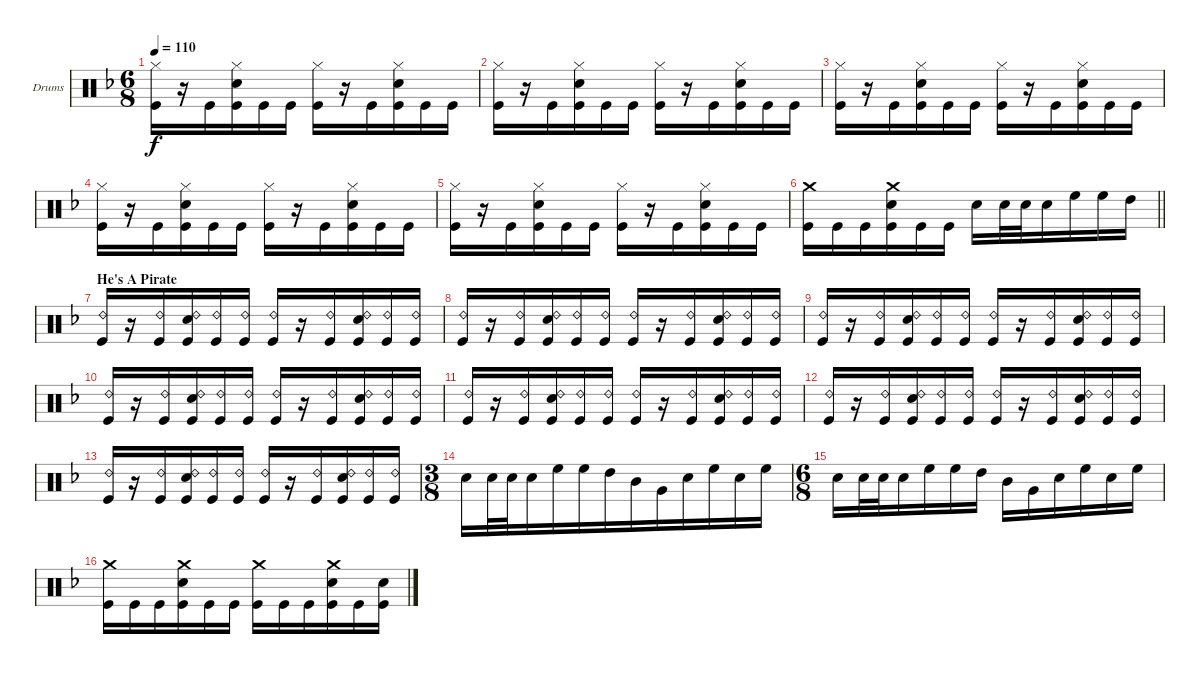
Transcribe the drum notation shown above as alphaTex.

\bracketExtendMode groupsimilarinstruments
\firstSystemTrackNameOrientation horizontal
\otherSystemsTrackNameOrientation horizontal
\track ("Drumkit" "Drums") {instrument percussion}
\staff {score}
\articulation defaults
\ts (6 8)
\tempo 110
\clef neutral
\ks f
("Kick (hit)" "Hi-Hat (closed)").16{dy f} r.16 "Kick (hit)".16 ("Kick (hit)" "Snare (hit) 2" "Hi-Hat (closed)").16 "Kick (hit)".16 "Kick (hit)".16 ("Kick (hit)" "Hi-Hat (closed)").16 r.16 "Kick (hit)".16 ("Kick (hit)" "Snare (hit) 2" "Hi-Hat (closed)").16 "Kick (hit)".16 "Kick (hit)".16 |
("Kick (hit)" "Hi-Hat (closed)").16 r.16 "Kick (hit)".16 ("Kick (hit)" "Snare (hit) 2" "Hi-Hat (closed)").16 "Kick (hit)".16 "Kick (hit)".16 ("Kick (hit)" "Hi-Hat (closed)").16 r.16 "Kick (hit)".16 ("Kick (hit)" "Snare (hit) 2" "Hi-Hat (closed)").16 "Kick (hit)".16 "Kick (hit)".16 |
("Kick (hit)" "Hi-Hat (closed)").16 r.16 "Kick (hit)".16 ("Kick (hit)" "Snare (hit) 2" "Hi-Hat (closed)").16 "Kick (hit)".16 "Kick (hit)".16 ("Kick (hit)" "Hi-Hat (closed)").16 r.16 "Kick (hit)".16 ("Kick (hit)" "Snare (hit) 2" "Hi-Hat (closed)").16 "Kick (hit)".16 "Kick (hit)".16 |
("Kick (hit)" "Hi-Hat (closed)").16 r.16 "Kick (hit)".16 ("Kick (hit)" "Snare (hit) 2" "Hi-Hat (closed)").16 "Kick (hit)".16 "Kick (hit)".16 ("Kick (hit)" "Hi-Hat (closed)").16 r.16 "Kick (hit)".16 ("Kick (hit)" "Snare (hit) 2" "Hi-Hat (closed)").16 "Kick (hit)".16 "Kick (hit)".16 |
("Kick (hit)" "Hi-Hat (closed)").16 r.16 "Kick (hit)".16 ("Kick (hit)" "Snare (hit) 2" "Hi-Hat (closed)").16 "Kick (hit)".16 "Kick (hit)".16 ("Kick (hit)" "Hi-Hat (closed)").16 r.16 "Kick (hit)".16 ("Kick (hit)" "Snare (hit) 2" "Hi-Hat (closed)").16 "Kick (hit)".16 "Kick (hit)".16 |
\barLineRight lightlight
("Kick (hit)" "Crash medium (hit)").16 "Kick (hit)".16 "Kick (hit)".16 ("Kick (hit)" "Snare (hit) 2" "Crash medium (hit)").16 "Kick (hit)".16 "Kick (hit)".16 "Snare (hit) 2".16 "Snare (hit) 2".32 "Snare (hit) 2".32 "Snare (hit) 2".16 "High Floor Tom (hit)".16 "High Floor Tom (hit)".16 "High Tom (hit)".16 |
\section ("" "He's A Pirate")
("Kick (hit)" "Ride (bell) 2").16 r.16 ("Kick (hit)" "Ride (bell) 2").16 ("Kick (hit)" "Snare (hit) 2" "Ride (bell) 2").16 ("Kick (hit)" "Ride (bell) 2").16 ("Kick (hit)" "Ride (bell) 2").16 ("Kick (hit)" "Ride (bell) 2").16 r.16 ("Kick (hit)" "Ride (bell) 2").16 ("Kick (hit)" "Snare (hit) 2" "Ride (bell) 2").16 ("Kick (hit)" "Ride (bell) 2").16 ("Kick (hit)" "Ride (bell) 2").16 |
("Kick (hit)" "Ride (bell) 2").16 r.16 ("Kick (hit)" "Ride (bell) 2").16 ("Kick (hit)" "Snare (hit) 2" "Ride (bell) 2").16 ("Kick (hit)" "Ride (bell) 2").16 ("Kick (hit)" "Ride (bell) 2").16 ("Kick (hit)" "Ride (bell) 2").16 r.16 ("Kick (hit)" "Ride (bell) 2").16 ("Kick (hit)" "Snare (hit) 2" "Ride (bell) 2").16 ("Kick (hit)" "Ride (bell) 2").16 ("Kick (hit)" "Ride (bell) 2").16 |
("Kick (hit)" "Ride (bell) 2").16 r.16 ("Kick (hit)" "Ride (bell) 2").16 ("Kick (hit)" "Snare (hit) 2" "Ride (bell) 2").16 ("Kick (hit)" "Ride (bell) 2").16 ("Kick (hit)" "Ride (bell) 2").16 ("Kick (hit)" "Ride (bell) 2").16 r.16 ("Kick (hit)" "Ride (bell) 2").16 ("Kick (hit)" "Snare (hit) 2" "Ride (bell) 2").16 ("Kick (hit)" "Ride (bell) 2").16 ("Kick (hit)" "Ride (bell) 2").16 |
("Kick (hit)" "Ride (bell) 2").16 r.16 ("Kick (hit)" "Ride (bell) 2").16 ("Kick (hit)" "Snare (hit) 2" "Ride (bell) 2").16 ("Kick (hit)" "Ride (bell) 2").16 ("Kick (hit)" "Ride (bell) 2").16 ("Kick (hit)" "Ride (bell) 2").16 r.16 ("Kick (hit)" "Ride (bell) 2").16 ("Kick (hit)" "Snare (hit) 2" "Ride (bell) 2").16 ("Kick (hit)" "Ride (bell) 2").16 ("Kick (hit)" "Ride (bell) 2").16 |
("Kick (hit)" "Ride (bell) 2").16 r.16 ("Kick (hit)" "Ride (bell) 2").16 ("Kick (hit)" "Snare (hit) 2" "Ride (bell) 2").16 ("Kick (hit)" "Ride (bell) 2").16 ("Kick (hit)" "Ride (bell) 2").16 ("Kick (hit)" "Ride (bell) 2").16 r.16 ("Kick (hit)" "Ride (bell) 2").16 ("Kick (hit)" "Snare (hit) 2" "Ride (bell) 2").16 ("Kick (hit)" "Ride (bell) 2").16 ("Kick (hit)" "Ride (bell) 2").16 |
("Kick (hit)" "Ride (bell) 2").16 r.16 ("Kick (hit)" "Ride (bell) 2").16 ("Kick (hit)" "Snare (hit) 2" "Ride (bell) 2").16 ("Kick (hit)" "Ride (bell) 2").16 ("Kick (hit)" "Ride (bell) 2").16 ("Kick (hit)" "Ride (bell) 2").16 r.16 ("Kick (hit)" "Ride (bell) 2").16 ("Kick (hit)" "Snare (hit) 2" "Ride (bell) 2").16 ("Kick (hit)" "Ride (bell) 2").16 ("Kick (hit)" "Ride (bell) 2").16 |
("Kick (hit)" "Ride (bell) 2").16 r.16 ("Kick (hit)" "Ride (bell) 2").16 ("Kick (hit)" "Snare (hit) 2" "Ride (bell) 2").16 ("Kick (hit)" "Ride (bell) 2").16 ("Kick (hit)" "Ride (bell) 2").16 ("Kick (hit)" "Ride (bell) 2").16 r.16 ("Kick (hit)" "Ride (bell) 2").16 ("Kick (hit)" "Snare (hit) 2" "Ride (bell) 2").16 ("Kick (hit)" "Ride (bell) 2").16 ("Kick (hit)" "Ride (bell) 2").16 |
\ts (3 8)
"Snare (hit) 2".16 "Snare (hit) 2".32 "Snare (hit) 2".32 "Snare (hit) 2".16 "High Floor Tom (hit)".16 "High Floor Tom (hit)".16 "High Tom (hit)".16 "Mid Tom (hit)".16 "Very Low Tom (hit)".16 "Snare (hit) 2".16 "High Floor Tom (hit)".16 "Snare (hit) 2".16 "High Floor Tom (hit)".16 |
\ts (6 8)
"Snare (hit) 2".16 "Snare (hit) 2".32 "Snare (hit) 2".32 "Snare (hit) 2".16 "High Floor Tom (hit)".16 "High Floor Tom (hit)".16 "High Tom (hit)".16 "Mid Tom (hit)".16 "Very Low Tom (hit)".16 "Snare (hit) 2".16 "High Floor Tom (hit)".16 "Snare (hit) 2".16 "High Floor Tom (hit)".16 |
("Kick (hit)" "Crash medium (hit)").16 "Kick (hit)".16 "Kick (hit)".16 ("Kick (hit)" "Snare (hit) 2" "Crash medium (hit)").16 "Kick (hit)".16 "Kick (hit)".16 ("Kick (hit)" "Crash medium (hit)").16 "Kick (hit)".16 "Kick (hit)".16 ("Kick (hit)" "Snare (hit) 2" "Crash medium (hit)").16 "Kick (hit)".16 ("Kick (hit)" "Snare (hit) 2").16
